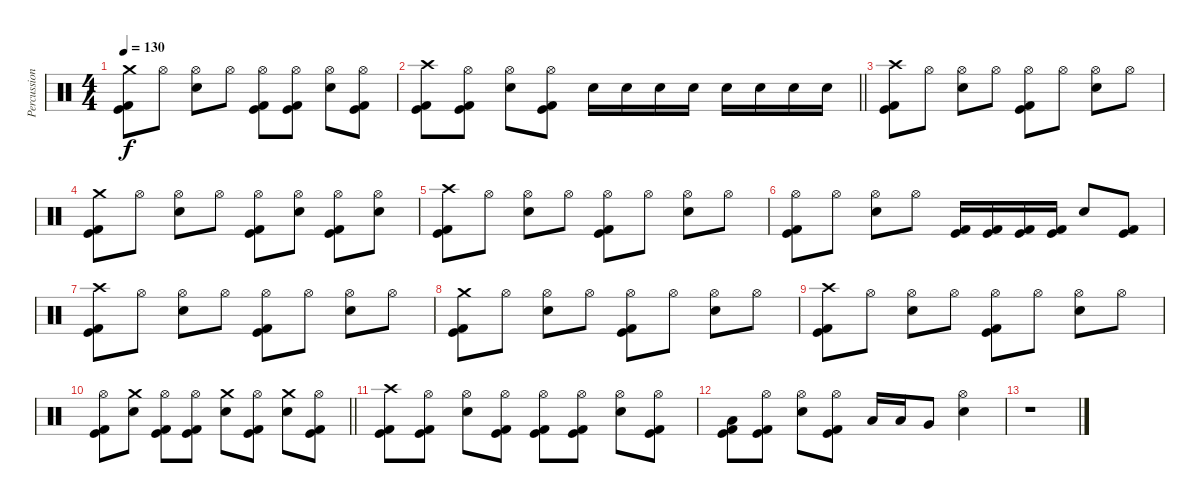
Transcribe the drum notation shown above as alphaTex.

\track ("Percussion" "Percussion") {instrument percussion}
\staff {score}
\articulation defaults
\ts (4 4)
\tempo 130
\clef neutral
\ks c
("Crash medium (hit)" "Kick (hit)" "Kick (hit) 2").8{dy f} "Hi-Hat (open)".8 ("Hi-Hat (open)" "Electric Snare (hit)").8 "Hi-Hat (open)".8 ("Hi-Hat (open)" "Kick (hit)" "Kick (hit) 2").8 ("Hi-Hat (open)" "Kick (hit)" "Kick (hit) 2").8 ("Hi-Hat (open)" "Electric Snare (hit)").8 ("Hi-Hat (open)" "Kick (hit)" "Kick (hit) 2").8 |
\barLineRight lightlight
("Crash high (hit)" "Kick (hit)" "Kick (hit) 2").8 ("Hi-Hat (open)" "Kick (hit)" "Kick (hit) 2").8 ("Hi-Hat (open)" "Electric Snare (hit)").8 ("Hi-Hat (open)" "Kick (hit)" "Kick (hit) 2").8 "Electric Snare (hit)".16 "Electric Snare (hit)".16 "Electric Snare (hit)".16 "Electric Snare (hit)".16 "Electric Snare (hit)".16 "Electric Snare (hit)".16 "Electric Snare (hit)".16 "Electric Snare (hit)".16 |
\section ("" "")
("Crash high (hit)" "Kick (hit)" "Kick (hit) 2").8 "Hi-Hat (open)".8 ("Hi-Hat (open)" "Electric Snare (hit)").8 "Hi-Hat (open)".8 ("Hi-Hat (open)" "Kick (hit)" "Kick (hit) 2").8 "Hi-Hat (open)".8 ("Hi-Hat (open)" "Electric Snare (hit)").8 "Hi-Hat (open)".8 |
("Crash medium (hit)" "Kick (hit)" "Kick (hit) 2").8 "Hi-Hat (open)".8 ("Hi-Hat (open)" "Electric Snare (hit)").8 "Hi-Hat (open)".8 ("Hi-Hat (open)" "Kick (hit)" "Kick (hit) 2").8 ("Hi-Hat (open)" "Electric Snare (hit)").8 ("Hi-Hat (open)" "Kick (hit)" "Kick (hit) 2").8 ("Hi-Hat (open)" "Electric Snare (hit)").8 |
("Crash high (hit)" "Kick (hit)" "Kick (hit) 2").8 "Hi-Hat (open)".8 ("Hi-Hat (open)" "Electric Snare (hit)").8 "Hi-Hat (open)".8 ("Hi-Hat (open)" "Kick (hit)" "Kick (hit) 2").8 "Hi-Hat (open)".8 ("Hi-Hat (open)" "Electric Snare (hit)").8 "Hi-Hat (open)".8 |
("Hi-Hat (open)" "Kick (hit)" "Kick (hit) 2").8 "Hi-Hat (open)".8 ("Hi-Hat (open)" "Electric Snare (hit)").8 "Hi-Hat (open)".8 ("Kick (hit)" "Kick (hit) 2").16 ("Kick (hit)" "Kick (hit) 2").16 ("Kick (hit)" "Kick (hit) 2").16 ("Kick (hit)" "Kick (hit) 2").16 "Electric Snare (hit)".8 ("Kick (hit)" "Kick (hit) 2").8 |
("Crash high (hit)" "Kick (hit)" "Kick (hit) 2").8 "Hi-Hat (open)".8 ("Hi-Hat (open)" "Electric Snare (hit)").8 "Hi-Hat (open)".8 ("Hi-Hat (open)" "Kick (hit)" "Kick (hit) 2").8 "Hi-Hat (open)".8 ("Hi-Hat (open)" "Electric Snare (hit)").8 "Hi-Hat (open)".8 |
("Crash medium (hit)" "Kick (hit)" "Kick (hit) 2").8 "Hi-Hat (open)".8 ("Hi-Hat (open)" "Electric Snare (hit)").8 "Hi-Hat (open)".8 ("Hi-Hat (open)" "Kick (hit)" "Kick (hit) 2").8 "Hi-Hat (open)".8 ("Hi-Hat (open)" "Electric Snare (hit)").8 "Hi-Hat (open)".8 |
("Crash high (hit)" "Kick (hit)" "Kick (hit) 2").8 "Hi-Hat (open)".8 ("Hi-Hat (open)" "Electric Snare (hit)").8 "Hi-Hat (open)".8 ("Hi-Hat (open)" "Kick (hit)" "Kick (hit) 2").8 "Hi-Hat (open)".8 ("Hi-Hat (open)" "Electric Snare (hit)").8 "Hi-Hat (open)".8 |
\barLineRight lightlight
("Hi-Hat (open)" "Kick (hit)" "Kick (hit) 2").8 ("Crash medium (hit)" "Electric Snare (hit)").8 ("Hi-Hat (open)" "Kick (hit)" "Kick (hit) 2").8 ("Hi-Hat (open)" "Kick (hit)" "Kick (hit) 2").8 ("Crash medium (hit)" "Electric Snare (hit)").8 ("Hi-Hat (open)" "Kick (hit)" "Kick (hit) 2").8 ("Crash medium (hit)" "Electric Snare (hit)").8 ("Hi-Hat (open)" "Kick (hit)" "Kick (hit) 2").8 |
\section ("" "")
("Crash high (hit)" "Kick (hit)" "Kick (hit) 2").8 ("Hi-Hat (open)" "Kick (hit)" "Kick (hit) 2").8 ("Hi-Hat (open)" "Electric Snare (hit)").8 ("Hi-Hat (open)" "Kick (hit)" "Kick (hit) 2").8 ("Hi-Hat (open)" "Kick (hit)" "Kick (hit) 2").8 ("Hi-Hat (open)" "Kick (hit)" "Kick (hit) 2").8 ("Hi-Hat (open)" "Electric Snare (hit)").8 ("Hi-Hat (open)" "Kick (hit)" "Kick (hit) 2").8 |
("Low Tom (hit)" "Kick (hit)" "Kick (hit) 2").8 ("Hi-Hat (open)" "Kick (hit)" "Kick (hit) 2").8 ("Hi-Hat (open)" "Electric Snare (hit)").8 ("Hi-Hat (open)" "Kick (hit)" "Kick (hit) 2").8 "Low Tom (hit)".16 "Low Tom (hit)".16 "Very Low Tom (hit)".8 ("Hi-Hat (open)" "Electric Snare (hit)").4 |
r.1
